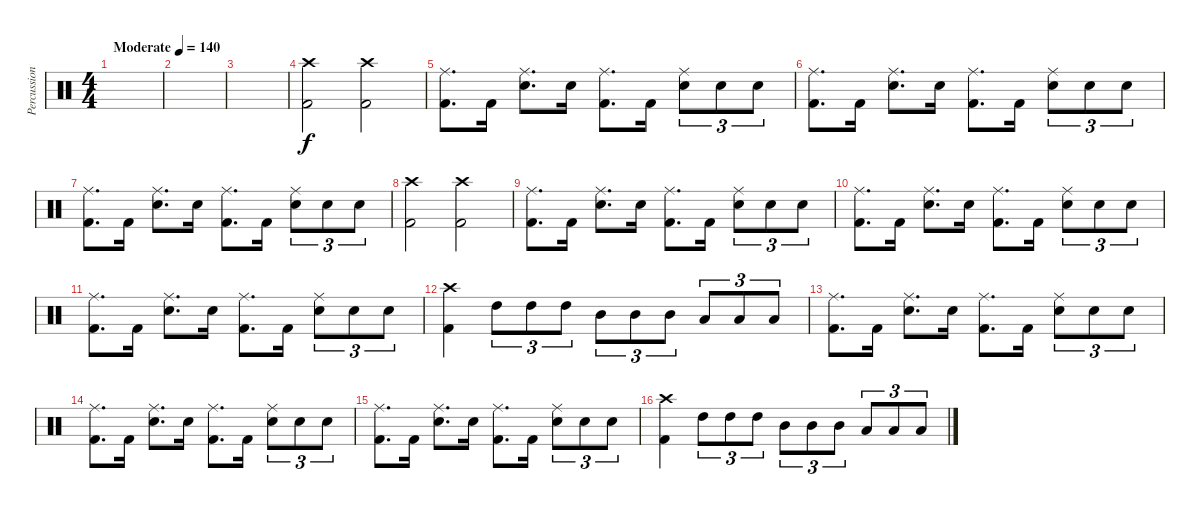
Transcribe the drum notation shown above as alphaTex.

\track ("Percussion" "Percussion") {instrument percussion}
\staff {score}
\articulation defaults
\ts (4 4)
\tempo (140 "Moderate")
\clef neutral
\ks c
|
|
|
("Kick (hit) 2" "Crash high (hit)").2 ("Kick (hit) 2" "Crash high (hit)").2 |
("Kick (hit) 2" "Ride (middle)").8{d} "Kick (hit) 2".16 ("Electric Snare (hit)" "Ride (middle)").8{d} "Electric Snare (hit)".16 ("Kick (hit) 2" "Ride (middle)").8{d} "Kick (hit) 2".16 ("Electric Snare (hit)" "Ride (middle)").8{tu (3 2)} "Electric Snare (hit)".8{tu (3 2)} "Electric Snare (hit)".8{tu (3 2)} |
("Kick (hit) 2" "Ride (middle)").8{d} "Kick (hit) 2".16 ("Electric Snare (hit)" "Ride (middle)").8{d} "Electric Snare (hit)".16 ("Kick (hit) 2" "Ride (middle)").8{d} "Kick (hit) 2".16 ("Electric Snare (hit)" "Ride (middle)").8{tu (3 2)} "Electric Snare (hit)".8{tu (3 2)} "Electric Snare (hit)".8{tu (3 2)} |
("Kick (hit) 2" "Ride (middle)").8{d} "Kick (hit) 2".16 ("Electric Snare (hit)" "Ride (middle)").8{d} "Electric Snare (hit)".16 ("Kick (hit) 2" "Ride (middle)").8{d} "Kick (hit) 2".16 ("Electric Snare (hit)" "Ride (middle)").8{tu (3 2)} "Electric Snare (hit)".8{tu (3 2)} "Electric Snare (hit)".8{tu (3 2)} |
("Kick (hit) 2" "Crash high (hit)").2 ("Kick (hit) 2" "Crash high (hit)").2 |
("Kick (hit) 2" "Ride (middle)").8{d} "Kick (hit) 2".16 ("Electric Snare (hit)" "Ride (middle)").8{d} "Electric Snare (hit)".16 ("Kick (hit) 2" "Ride (middle)").8{d} "Kick (hit) 2".16 ("Electric Snare (hit)" "Ride (middle)").8{tu (3 2)} "Electric Snare (hit)".8{tu (3 2)} "Electric Snare (hit)".8{tu (3 2)} |
("Kick (hit) 2" "Ride (middle)").8{d} "Kick (hit) 2".16 ("Electric Snare (hit)" "Ride (middle)").8{d} "Electric Snare (hit)".16 ("Kick (hit) 2" "Ride (middle)").8{d} "Kick (hit) 2".16 ("Electric Snare (hit)" "Ride (middle)").8{tu (3 2)} "Electric Snare (hit)".8{tu (3 2)} "Electric Snare (hit)".8{tu (3 2)} |
("Kick (hit) 2" "Ride (middle)").8{d} "Kick (hit) 2".16 ("Electric Snare (hit)" "Ride (middle)").8{d} "Electric Snare (hit)".16 ("Kick (hit) 2" "Ride (middle)").8{d} "Kick (hit) 2".16 ("Electric Snare (hit)" "Ride (middle)").8{tu (3 2)} "Electric Snare (hit)".8{tu (3 2)} "Electric Snare (hit)".8{tu (3 2)} |
("Kick (hit) 2" "Crash high (hit)").4 "High Tom (hit)".8{tu (3 2)} "High Tom (hit)".8{tu (3 2)} "High Tom (hit)".8{tu (3 2)} "Mid Tom (hit)".8{tu (3 2)} "Mid Tom (hit)".8{tu (3 2)} "Mid Tom (hit)".8{tu (3 2)} "Low Tom (hit)".8{tu (3 2)} "Low Tom (hit)".8{tu (3 2)} "Low Tom (hit)".8{tu (3 2)} |
("Kick (hit) 2" "Ride (middle)").8{d} "Kick (hit) 2".16 ("Electric Snare (hit)" "Ride (middle)").8{d} "Electric Snare (hit)".16 ("Kick (hit) 2" "Ride (middle)").8{d} "Kick (hit) 2".16 ("Electric Snare (hit)" "Ride (middle)").8{tu (3 2)} "Electric Snare (hit)".8{tu (3 2)} "Electric Snare (hit)".8{tu (3 2)} |
("Kick (hit) 2" "Ride (middle)").8{d} "Kick (hit) 2".16 ("Electric Snare (hit)" "Ride (middle)").8{d} "Electric Snare (hit)".16 ("Kick (hit) 2" "Ride (middle)").8{d} "Kick (hit) 2".16 ("Electric Snare (hit)" "Ride (middle)").8{tu (3 2)} "Electric Snare (hit)".8{tu (3 2)} "Electric Snare (hit)".8{tu (3 2)} |
("Kick (hit) 2" "Ride (middle)").8{d} "Kick (hit) 2".16 ("Electric Snare (hit)" "Ride (middle)").8{d} "Electric Snare (hit)".16 ("Kick (hit) 2" "Ride (middle)").8{d} "Kick (hit) 2".16 ("Electric Snare (hit)" "Ride (middle)").8{tu (3 2)} "Electric Snare (hit)".8{tu (3 2)} "Electric Snare (hit)".8{tu (3 2)} |
("Kick (hit) 2" "Crash high (hit)").4 "High Tom (hit)".8{tu (3 2)} "High Tom (hit)".8{tu (3 2)} "High Tom (hit)".8{tu (3 2)} "Mid Tom (hit)".8{tu (3 2)} "Mid Tom (hit)".8{tu (3 2)} "Mid Tom (hit)".8{tu (3 2)} "Low Tom (hit)".8{tu (3 2)} "Low Tom (hit)".8{tu (3 2)} "Low Tom (hit)".8{tu (3 2)}
